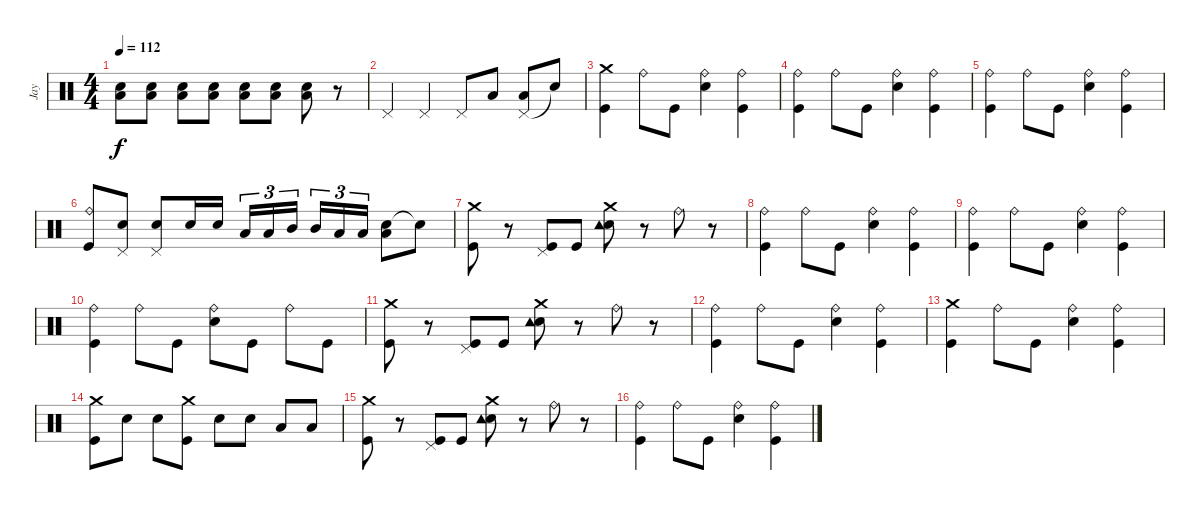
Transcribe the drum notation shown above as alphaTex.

\track ("Jay" "Jay") {instrument percussion}
\staff {score}
\articulation defaults
\ts (4 4)
\tempo 112
\clef neutral
\ks c
("Low Tom (hit)" "Electric Snare (hit)").8{dy f} ("Low Tom (hit)" "Electric Snare (hit)").8 ("Low Tom (hit)" "Electric Snare (hit)").8 ("Low Tom (hit)" "Electric Snare (hit)").8 ("Low Tom (hit)" "Electric Snare (hit)").8 ("Low Tom (hit)" "Electric Snare (hit)").8 ("Low Tom (hit)" "Electric Snare (hit)").8 r.8 |
"Pedal Hi-Hat (hit)".4 "Pedal Hi-Hat (hit)".4 "Pedal Hi-Hat (hit)".8 "Low Tom (hit)".8 ("Pedal Hi-Hat (hit)" "Low Tom (hit)").8 "Snare (hit)"{t}.8 |
("Crash medium (hit)" "Kick (hit)").4 "Ride (bell)".8 "Kick (hit)".8 ("Ride (bell)" "Electric Snare (hit)").4 ("Ride (bell)" "Kick (hit)").4 |
("Ride (bell)" "Kick (hit)").4 "Ride (bell)".8 "Kick (hit)".8 ("Ride (bell)" "Electric Snare (hit)").4 ("Ride (bell)" "Kick (hit)").4 |
("Ride (bell)" "Kick (hit)").4 "Ride (bell)".8 "Kick (hit)".8 ("Ride (bell)" "Electric Snare (hit)").4 ("Ride (bell)" "Kick (hit)").4 |
("Ride (bell)" "Kick (hit)").8 ("Pedal Hi-Hat (hit)" "Electric Snare (hit)").8 ("Pedal Hi-Hat (hit)" "Electric Snare (hit)").8 "Electric Snare (hit)".16 "Electric Snare (hit)".16 "Low Tom (hit)".16{tu (3 2)} "Low Tom (hit)".16{tu (3 2)} "Mid Tom (hit)".16{tu (3 2) beam splitsecondary} "Mid Tom (hit)".16{tu (3 2)} "Low Tom (hit)".16{tu (3 2)} "Low Tom (hit)".16{tu (3 2)} ("Electric Snare (hit)" "Low Tom (hit)").8 "Electric Snare (hit)"{t}.8 |
("Crash medium (hit)" "Kick (hit)").8 r.8 ("Pedal Hi-Hat (hit)" "Kick (hit)").8 "Kick (hit)".8 ("Crash medium (hit)" "Electric Snare (hit)" "Tambourine (hit)").8 r.8 "Ride (bell)".8 r.8 |
("Ride (bell)" "Kick (hit)").4 "Ride (bell)".8 "Kick (hit)".8 ("Ride (bell)" "Electric Snare (hit)").4 ("Ride (bell)" "Kick (hit)").4 |
("Ride (bell)" "Kick (hit)").4 "Ride (bell)".8 "Kick (hit)".8 ("Ride (bell)" "Electric Snare (hit)").4 ("Ride (bell)" "Kick (hit)").4 |
("Ride (bell)" "Kick (hit)").4 "Ride (bell)".8 "Kick (hit)".8 ("Ride (bell)" "Electric Snare (hit)").8 "Kick (hit)".8 "Ride (bell)".8 "Kick (hit)".8 |
("Crash medium (hit)" "Kick (hit)").8 r.8 ("Pedal Hi-Hat (hit)" "Kick (hit)").8 "Kick (hit)".8 ("Crash medium (hit)" "Electric Snare (hit)" "Tambourine (hit)").8 r.8 "Ride (bell)".8 r.8 |
("Ride (bell)" "Kick (hit)").4 "Ride (bell)".8 "Kick (hit)".8 ("Ride (bell)" "Electric Snare (hit)").4 ("Ride (bell)" "Kick (hit)").4 |
("Crash medium (hit)" "Kick (hit)").4 "Ride (bell)".8 "Kick (hit)".8 ("Ride (bell)" "Electric Snare (hit)").4 ("Ride (bell)" "Kick (hit)").4 |
("Crash medium (hit)" "Kick (hit)").8 "Electric Snare (hit)".8 "Electric Snare (hit)".8 ("Crash medium (hit)" "Kick (hit)").8 "Electric Snare (hit)".8 "Electric Snare (hit)".8 "Low Tom (hit)".8 "Low Tom (hit)".8 |
("Crash medium (hit)" "Kick (hit)").8 r.8 ("Pedal Hi-Hat (hit)" "Kick (hit)").8 "Kick (hit)".8 ("Crash medium (hit)" "Electric Snare (hit)" "Tambourine (hit)").8 r.8 "Ride (bell)".8 r.8 |
("Ride (bell)" "Kick (hit)").4 "Ride (bell)".8 "Kick (hit)".8 ("Ride (bell)" "Electric Snare (hit)").4 ("Ride (bell)" "Kick (hit)").4
